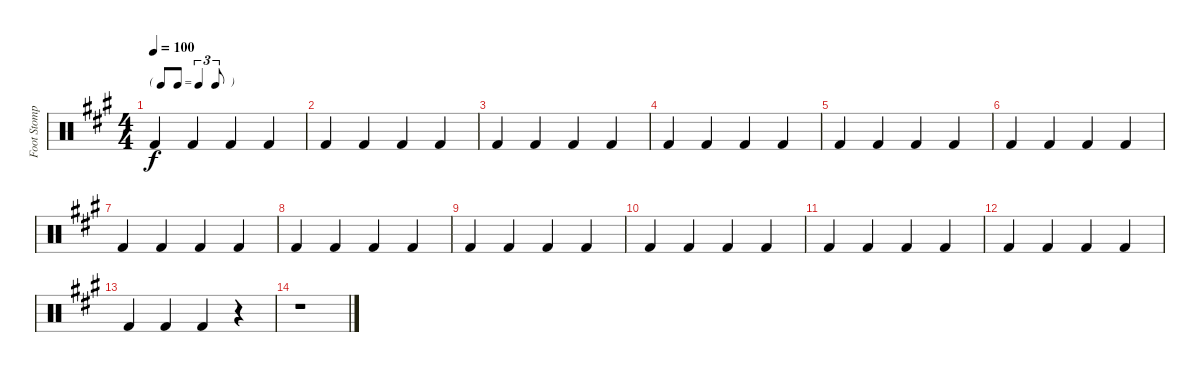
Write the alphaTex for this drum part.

\track ("Foot Stomp" "Foot Stomp") {instrument percussion}
\staff {score}
\articulation defaults
\ts (4 4)
\tf triplet8th
\tempo 100
\clef neutral
\ks a "Kick (hit) 2".4{dy f} "Kick (hit) 2".4 "Kick (hit) 2".4 "Kick (hit) 2".4
|
"Kick (hit) 2".4 "Kick (hit) 2".4 "Kick (hit) 2".4 "Kick (hit) 2".4 |
"Kick (hit) 2".4 "Kick (hit) 2".4 "Kick (hit) 2".4 "Kick (hit) 2".4 |
"Kick (hit) 2".4 "Kick (hit) 2".4 "Kick (hit) 2".4 "Kick (hit) 2".4 |
"Kick (hit) 2".4 "Kick (hit) 2".4 "Kick (hit) 2".4 "Kick (hit) 2".4 |
"Kick (hit) 2".4 "Kick (hit) 2".4 "Kick (hit) 2".4 "Kick (hit) 2".4 |
"Kick (hit) 2".4 "Kick (hit) 2".4 "Kick (hit) 2".4 "Kick (hit) 2".4 |
"Kick (hit) 2".4 "Kick (hit) 2".4 "Kick (hit) 2".4 "Kick (hit) 2".4 |
"Kick (hit) 2".4 "Kick (hit) 2".4 "Kick (hit) 2".4 "Kick (hit) 2".4 |
"Kick (hit) 2".4 "Kick (hit) 2".4 "Kick (hit) 2".4 "Kick (hit) 2".4 |
"Kick (hit) 2".4 "Kick (hit) 2".4 "Kick (hit) 2".4 "Kick (hit) 2".4 |
"Kick (hit) 2".4 "Kick (hit) 2".4 "Kick (hit) 2".4 "Kick (hit) 2".4 |
"Kick (hit) 2".4 "Kick (hit) 2".4 "Kick (hit) 2".4 r.4 |
r.1
